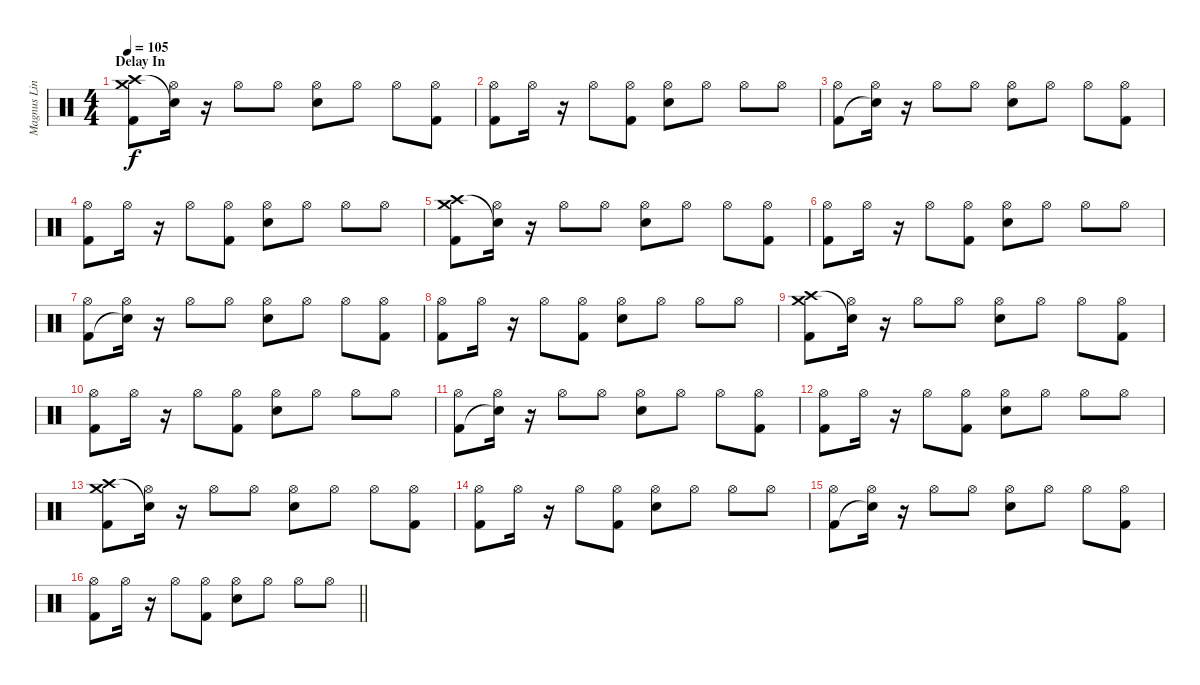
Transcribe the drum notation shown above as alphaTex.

\track ("Magnus Lindberg" "Magnus Lin") {instrument percussion}
\staff {score}
\articulation defaults
\ts (4 4)
\section ("" "Delay In")
\tempo 105
\clef neutral
\ks c
("Crash medium (hit)" "Crash high (hit)" "Kick (hit) 2").8{dy f} ("Hi-Hat (open)" "Snare (hit)"{t}).16 r.16 "Hi-Hat (open)".8 "Hi-Hat (open)".8 ("Hi-Hat (open)" "Snare (hit) 2").8 "Hi-Hat (open)".8 "Hi-Hat (open)".8 ("Hi-Hat (open)" "Kick (hit) 2").8 |
("Hi-Hat (open)" "Kick (hit) 2").8 "Hi-Hat (open)".16 r.16 "Hi-Hat (open)".8 ("Hi-Hat (open)" "Kick (hit) 2").8 ("Hi-Hat (open)" "Snare (hit) 2").8 "Hi-Hat (open)".8 "Hi-Hat (open)".8 "Hi-Hat (open)".8 |
("Hi-Hat (open)" "Kick (hit) 2").8 ("Hi-Hat (open)" "Snare (hit)"{t}).16 r.16 "Hi-Hat (open)".8 "Hi-Hat (open)".8 ("Hi-Hat (open)" "Snare (hit) 2").8 "Hi-Hat (open)".8 "Hi-Hat (open)".8 ("Hi-Hat (open)" "Kick (hit) 2").8 |
("Hi-Hat (open)" "Kick (hit) 2").8 "Hi-Hat (open)".16 r.16 "Hi-Hat (open)".8 ("Hi-Hat (open)" "Kick (hit) 2").8 ("Hi-Hat (open)" "Snare (hit) 2").8 "Hi-Hat (open)".8 "Hi-Hat (open)".8 "Hi-Hat (open)".8 |
("Crash medium (hit)" "Crash high (hit)" "Kick (hit) 2").8 ("Hi-Hat (open)" "Snare (hit)"{t}).16 r.16 "Hi-Hat (open)".8 "Hi-Hat (open)".8 ("Hi-Hat (open)" "Snare (hit) 2").8 "Hi-Hat (open)".8 "Hi-Hat (open)".8 ("Hi-Hat (open)" "Kick (hit) 2").8 |
("Hi-Hat (open)" "Kick (hit) 2").8 "Hi-Hat (open)".16 r.16 "Hi-Hat (open)".8 ("Hi-Hat (open)" "Kick (hit) 2").8 ("Hi-Hat (open)" "Snare (hit) 2").8 "Hi-Hat (open)".8 "Hi-Hat (open)".8 "Hi-Hat (open)".8 |
("Hi-Hat (open)" "Kick (hit) 2").8 ("Hi-Hat (open)" "Snare (hit)"{t}).16 r.16 "Hi-Hat (open)".8 "Hi-Hat (open)".8 ("Hi-Hat (open)" "Snare (hit) 2").8 "Hi-Hat (open)".8 "Hi-Hat (open)".8 ("Hi-Hat (open)" "Kick (hit) 2").8 |
("Hi-Hat (open)" "Kick (hit) 2").8 "Hi-Hat (open)".16 r.16 "Hi-Hat (open)".8 ("Hi-Hat (open)" "Kick (hit) 2").8 ("Hi-Hat (open)" "Snare (hit) 2").8 "Hi-Hat (open)".8 "Hi-Hat (open)".8 "Hi-Hat (open)".8 |
("Crash medium (hit)" "Crash high (hit)" "Kick (hit) 2").8 ("Hi-Hat (open)" "Snare (hit)"{t}).16 r.16 "Hi-Hat (open)".8 "Hi-Hat (open)".8 ("Hi-Hat (open)" "Snare (hit) 2").8 "Hi-Hat (open)".8 "Hi-Hat (open)".8 ("Hi-Hat (open)" "Kick (hit) 2").8 |
("Hi-Hat (open)" "Kick (hit) 2").8 "Hi-Hat (open)".16 r.16 "Hi-Hat (open)".8 ("Hi-Hat (open)" "Kick (hit) 2").8 ("Hi-Hat (open)" "Snare (hit) 2").8 "Hi-Hat (open)".8 "Hi-Hat (open)".8 "Hi-Hat (open)".8 |
("Hi-Hat (open)" "Kick (hit) 2").8 ("Hi-Hat (open)" "Snare (hit)"{t}).16 r.16 "Hi-Hat (open)".8 "Hi-Hat (open)".8 ("Hi-Hat (open)" "Snare (hit) 2").8 "Hi-Hat (open)".8 "Hi-Hat (open)".8 ("Hi-Hat (open)" "Kick (hit) 2").8 |
("Hi-Hat (open)" "Kick (hit) 2").8 "Hi-Hat (open)".16 r.16 "Hi-Hat (open)".8 ("Hi-Hat (open)" "Kick (hit) 2").8 ("Hi-Hat (open)" "Snare (hit) 2").8 "Hi-Hat (open)".8 "Hi-Hat (open)".8 "Hi-Hat (open)".8 |
("Crash medium (hit)" "Crash high (hit)" "Kick (hit) 2").8 ("Hi-Hat (open)" "Snare (hit)"{t}).16 r.16 "Hi-Hat (open)".8 "Hi-Hat (open)".8 ("Hi-Hat (open)" "Snare (hit) 2").8 "Hi-Hat (open)".8 "Hi-Hat (open)".8 ("Hi-Hat (open)" "Kick (hit) 2").8 |
("Hi-Hat (open)" "Kick (hit) 2").8 "Hi-Hat (open)".16 r.16 "Hi-Hat (open)".8 ("Hi-Hat (open)" "Kick (hit) 2").8 ("Hi-Hat (open)" "Snare (hit) 2").8 "Hi-Hat (open)".8 "Hi-Hat (open)".8 "Hi-Hat (open)".8 |
("Hi-Hat (open)" "Kick (hit) 2").8 ("Hi-Hat (open)" "Snare (hit)"{t}).16 r.16 "Hi-Hat (open)".8 "Hi-Hat (open)".8 ("Hi-Hat (open)" "Snare (hit) 2").8 "Hi-Hat (open)".8 "Hi-Hat (open)".8 ("Hi-Hat (open)" "Kick (hit) 2").8 |
\barLineRight lightlight
("Hi-Hat (open)" "Kick (hit) 2").8 "Hi-Hat (open)".16 r.16 "Hi-Hat (open)".8 ("Hi-Hat (open)" "Kick (hit) 2").8 ("Hi-Hat (open)" "Snare (hit) 2").8 "Hi-Hat (open)".8 "Hi-Hat (open)".8 "Hi-Hat (open)".8
